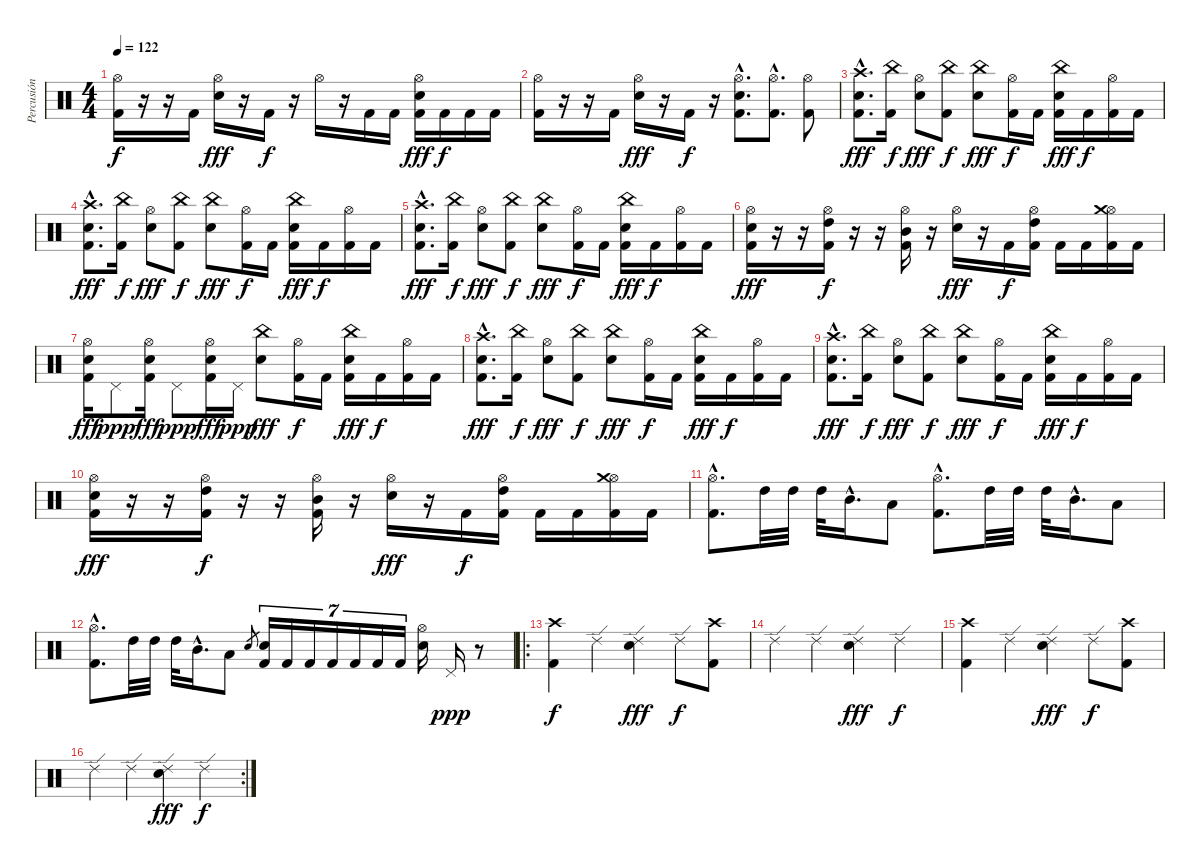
\track ("Percusión" "Percusión") {instrument percussion}
\staff {score}
\articulation defaults
\ts (4 4)
\tempo 122
\clef neutral
\ks c
("Hi-Hat (open)" "Kick (hit) 2").16{dy f} r.16 r.16 "Kick (hit) 2".16 ("Hi-Hat (open)" "Electric Snare (hit)").16{dy fff} r.16 "Kick (hit) 2".16{dy f} r.16 "Hi-Hat (open)".16 r.16 "Kick (hit) 2".16 "Kick (hit) 2".16 ("Hi-Hat (open)" "Electric Snare (hit)" "Kick (hit) 2").16{dy fff} "Kick (hit) 2".16{dy f} "Kick (hit) 2".16 "Kick (hit) 2".16 |
("Hi-Hat (open)" "Kick (hit) 2").16 r.16 r.16 "Kick (hit) 2".16 ("Hi-Hat (open)" "Electric Snare (hit)").16{dy fff} r.16 "Kick (hit) 2".16{dy f} r.16 ("Hi-Hat (open)"{hac} "Electric Snare (hit)"{hac} "Kick (hit) 2"{hac}).8{d} ("Hi-Hat (open)"{hac} "Kick (hit) 2"{hac}).8{d} ("Hi-Hat (open)" "Kick (hit) 2").8 |
("Crash high (hit)"{hac} "Electric Snare (hit)"{hac} "Kick (hit) 2"{hac}).8{d dy fff} ("China (hit)" "Kick (hit) 2").16{dy f} ("Hi-Hat (open)" "Electric Snare (hit)").8{dy fff} ("China (hit)" "Kick (hit) 2").8{dy f} ("China (hit)" "Electric Snare (hit)").8{dy fff} ("Hi-Hat (open)" "Kick (hit) 2").16{dy f} "Kick (hit) 2".16 ("China (hit)" "Electric Snare (hit)" "Kick (hit) 2").16{dy fff} "Kick (hit) 2".16{dy f} ("Hi-Hat (open)" "Kick (hit) 2").16 "Kick (hit) 2".16 |
("Crash high (hit)"{hac} "Electric Snare (hit)"{hac} "Kick (hit) 2"{hac}).8{d dy fff} ("China (hit)" "Kick (hit) 2").16{dy f} ("Hi-Hat (open)" "Electric Snare (hit)").8{dy fff} ("China (hit)" "Kick (hit) 2").8{dy f} ("China (hit)" "Electric Snare (hit)").8{dy fff} ("Hi-Hat (open)" "Kick (hit) 2").16{dy f} "Kick (hit) 2".16 ("China (hit)" "Electric Snare (hit)" "Kick (hit) 2").16{dy fff} "Kick (hit) 2".16{dy f} ("Hi-Hat (open)" "Kick (hit) 2").16 "Kick (hit) 2".16 |
("Crash high (hit)"{hac} "Electric Snare (hit)"{hac} "Kick (hit) 2"{hac}).8{d dy fff} ("China (hit)" "Kick (hit) 2").16{dy f} ("Hi-Hat (open)" "Electric Snare (hit)").8{dy fff} ("China (hit)" "Kick (hit) 2").8{dy f} ("China (hit)" "Electric Snare (hit)").8{dy fff} ("Hi-Hat (open)" "Kick (hit) 2").16{dy f} "Kick (hit) 2".16 ("China (hit)" "Electric Snare (hit)" "Kick (hit) 2").16{dy fff} "Kick (hit) 2".16{dy f} ("Hi-Hat (open)" "Kick (hit) 2").16 "Kick (hit) 2".16 |
("Hi-Hat (open)" "Electric Snare (hit)" "Kick (hit) 2").16{dy fff} r.16 r.16 ("Hi-Hat (open)" "High Tom (hit)" "Kick (hit) 2").16{dy f} r.16 r.16 ("Hi-Hat (open)" "Mid Tom (hit)" "Kick (hit) 2").16 r.16 ("Hi-Hat (open)" "Electric Snare (hit)").16{dy fff} r.16 "Kick (hit) 2".16{dy f} ("Hi-Hat (open)" "High Tom (hit)" "Kick (hit) 2").16 "Kick (hit) 2".16 "Kick (hit) 2".16 ("Hi-Hat (open)" "Crash medium (hit)" "Kick (hit) 2").16 "Kick (hit) 2".16 |
("Hi-Hat (open)" "Electric Snare (hit)" "Kick (hit) 2").16{dy fff} "Pedal Hi-Hat (hit)".8{dy ppp} ("Hi-Hat (open)" "Electric Snare (hit)" "Kick (hit) 2").16{dy fff} "Pedal Hi-Hat (hit)".8{dy ppp} ("Hi-Hat (open)" "Electric Snare (hit)" "Kick (hit) 2").16{dy fff} "Pedal Hi-Hat (hit)".16{dy ppp} ("China (hit)" "Electric Snare (hit)").8{dy fff} ("Hi-Hat (open)" "Kick (hit) 2").16{dy f} "Kick (hit) 2".16 ("China (hit)" "Electric Snare (hit)" "Kick (hit) 2").16{dy fff} "Kick (hit) 2".16{dy f} ("Hi-Hat (open)" "Kick (hit) 2").16 "Kick (hit) 2".16 |
("Crash high (hit)"{hac} "Electric Snare (hit)"{hac} "Kick (hit) 2"{hac}).8{d dy fff} ("China (hit)" "Kick (hit) 2").16{dy f} ("Hi-Hat (open)" "Electric Snare (hit)").8{dy fff} ("China (hit)" "Kick (hit) 2").8{dy f} ("China (hit)" "Electric Snare (hit)").8{dy fff} ("Hi-Hat (open)" "Kick (hit) 2").16{dy f} "Kick (hit) 2".16 ("China (hit)" "Electric Snare (hit)" "Kick (hit) 2").16{dy fff} "Kick (hit) 2".16{dy f} ("Hi-Hat (open)" "Kick (hit) 2").16 "Kick (hit) 2".16 |
("Crash high (hit)"{hac} "Electric Snare (hit)"{hac} "Kick (hit) 2"{hac}).8{d dy fff} ("China (hit)" "Kick (hit) 2").16{dy f} ("Hi-Hat (open)" "Electric Snare (hit)").8{dy fff} ("China (hit)" "Kick (hit) 2").8{dy f} ("China (hit)" "Electric Snare (hit)").8{dy fff} ("Hi-Hat (open)" "Kick (hit) 2").16{dy f} "Kick (hit) 2".16 ("China (hit)" "Electric Snare (hit)" "Kick (hit) 2").16{dy fff} "Kick (hit) 2".16{dy f} ("Hi-Hat (open)" "Kick (hit) 2").16 "Kick (hit) 2".16 |
("Hi-Hat (open)" "Electric Snare (hit)" "Kick (hit) 2").16{dy fff} r.16 r.16 ("Hi-Hat (open)" "High Tom (hit)" "Kick (hit) 2").16{dy f} r.16 r.16 ("Hi-Hat (open)" "Mid Tom (hit)" "Kick (hit) 2").16 r.16 ("Hi-Hat (open)" "Electric Snare (hit)").16{dy fff} r.16 "Kick (hit) 2".16{dy f} ("Hi-Hat (open)" "High Tom (hit)" "Kick (hit) 2").16 "Kick (hit) 2".16 "Kick (hit) 2".16 ("Hi-Hat (open)" "Crash medium (hit)" "Kick (hit) 2").16 "Kick (hit) 2".16 |
("Hi-Hat (open)"{hac} "Kick (hit) 2"{hac}).8{d} "High Tom (hit)".32 "High Tom (hit)".32 "High Tom (hit)".32 "Mid Tom (hit)"{hac}.16{d} "Low Tom (hit)".8 ("Hi-Hat (open)"{hac} "Kick (hit) 2"{hac}).8{d} "High Tom (hit)".32 "High Tom (hit)".32 "High Tom (hit)".32 "Mid Tom (hit)"{hac}.16{d} "Low Tom (hit)".8 |
("Hi-Hat (open)"{hac} "Kick (hit) 2"{hac}).8{d} "High Tom (hit)".32 "High Tom (hit)".32 "High Tom (hit)".32 "Mid Tom (hit)"{hac}.16{d} "Low Tom (hit)".8 "Electric Snare (hit)".8{gr} ("Electric Snare (hit)" "Kick (hit) 2").16{tu (7 4)} "Kick (hit) 2".16{tu (7 4)} "Kick (hit) 2".16{tu (7 4)} "Kick (hit) 2".16{tu (7 4)} "Kick (hit) 2".16{tu (7 4)} "Kick (hit) 2".16{tu (7 4)} "Kick (hit) 2".16{tu (7 4)} ("Hi-Hat (open)" "Electric Snare (hit)").16 "Pedal Hi-Hat (hit)".16{dy ppp} r.8 |
\ro
("Crash high (hit)" "Kick (hit) 2").4{dy f} "Ride (edge) 2".4 ("Ride (edge) 2" "Electric Snare (hit)").4{dy fff} "Ride (edge) 2".8{dy f} ("Crash high (hit)" "Kick (hit) 2").8 |
"Ride (edge) 2".4 "Ride (edge) 2".4 ("Ride (edge) 2" "Electric Snare (hit)").4{dy fff} "Ride (edge) 2".4{dy f} |
("Crash high (hit)" "Kick (hit) 2").4 "Ride (edge) 2".4 ("Ride (edge) 2" "Electric Snare (hit)").4{dy fff} "Ride (edge) 2".8{dy f} ("Crash high (hit)" "Kick (hit) 2").8 |
\rc 2 "Ride (edge) 2".4 "Ride (edge) 2".4
("Ride (edge) 2" "Electric Snare (hit)").4{dy fff} "Ride (edge) 2".4{dy f}
